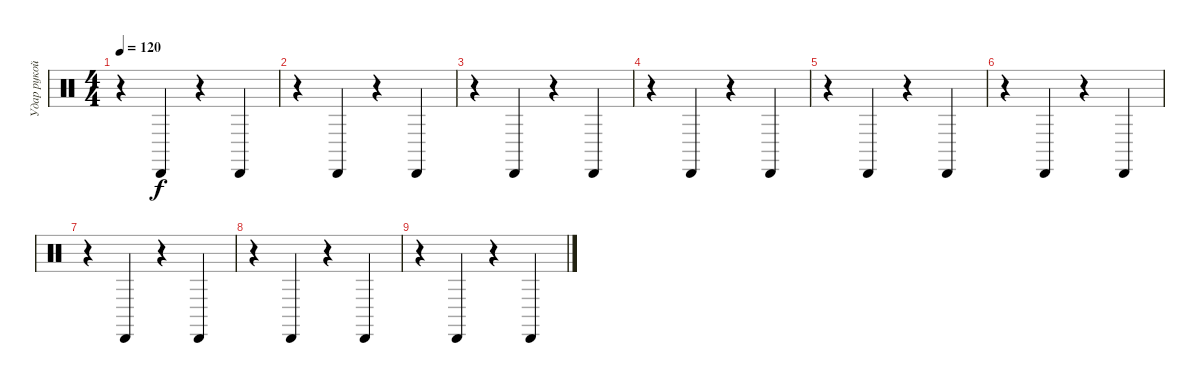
\track ("Удар рукой по струнам" "Удар рукой") {instrument percussion}
\staff {score}
\articulation defaults
\ts (4 4)
\tempo 120
\clef neutral
\ks c
r.4{dy f} "Cabasa (hit)".4 r.4 "Cabasa (hit)".4 |
r.4 "Cabasa (hit)".4 r.4 "Cabasa (hit)".4 |
r.4 "Cabasa (hit)".4 r.4 "Cabasa (hit)".4 |
r.4 "Cabasa (hit)".4 r.4 "Cabasa (hit)".4 |
r.4 "Cabasa (hit)".4 r.4 "Cabasa (hit)".4 |
r.4 "Cabasa (hit)".4 r.4 "Cabasa (hit)".4 |
r.4 "Cabasa (hit)".4 r.4 "Cabasa (hit)".4 |
r.4 "Cabasa (hit)".4 r.4 "Cabasa (hit)".4 |
r.4 "Cabasa (hit)".4 r.4 "Cabasa (hit)".4
